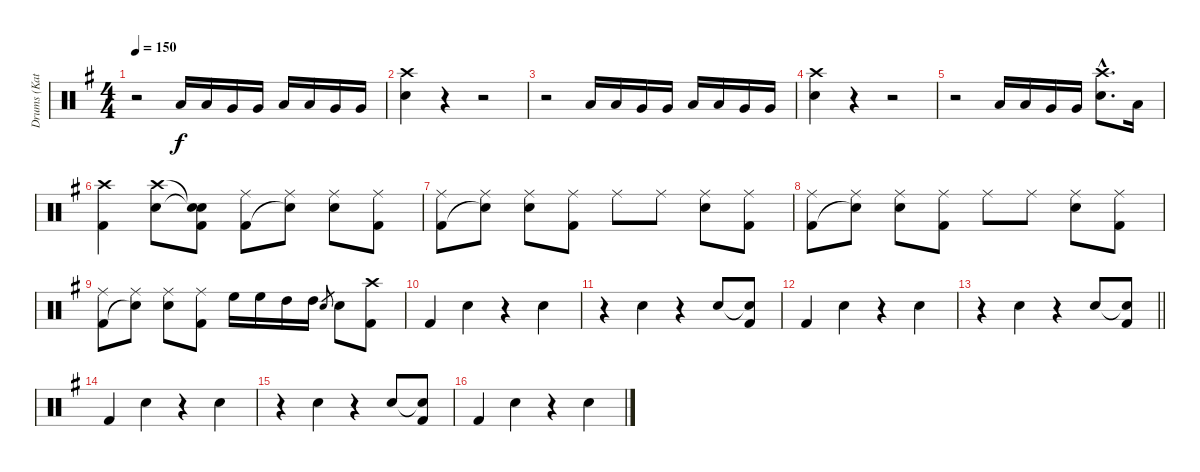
\track ("Drums (Katsuji)" "Drums (Kat") {instrument percussion}
\staff {score}
\articulation defaults
\ts (4 4)
\tempo 150
\clef neutral
\ks g
r.2{dy f} "Low Tom (hit)".16 "Low Tom (hit)".16 "Very Low Tom (hit)".16 "Very Low Tom (hit)".16 "Low Tom (hit)".16 "Low Tom (hit)".16 "Very Low Tom (hit)".16 "Very Low Tom (hit)".16 |
("Crash high (hit)" "Snare (hit) 2").4 r.4 r.2 |
r.2 "Low Tom (hit)".16 "Low Tom (hit)".16 "Very Low Tom (hit)".16 "Very Low Tom (hit)".16 "Low Tom (hit)".16 "Low Tom (hit)".16 "Very Low Tom (hit)".16 "Very Low Tom (hit)".16 |
("Crash high (hit)" "Snare (hit) 2").4 r.4 r.2 |
r.2 "Low Tom (hit)".16 "Low Tom (hit)".16 "Very Low Tom (hit)".16 "Very Low Tom (hit)".16 ("Crash high (hit)"{hac} "Snare (hit) 2"{hac}).8{d} "Low Tom (hit)".16 |
("Crash high (hit)" "Kick (hit) 2").4 ("Crash high (hit)" "Snare (hit) 2").8 ("Snare (hit)"{t} "Snare (hit)"{t} "Kick (hit) 2").8 ("Ride (middle)" "Kick (hit) 2").8 ("Ride (middle)" "Snare (hit)"{t}).8 ("Ride (middle)" "Snare (hit) 2").8 ("Ride (middle)" "Kick (hit) 2").8 |
("Ride (middle)" "Kick (hit) 2").8 ("Ride (middle)" "Snare (hit)"{t}).8 ("Ride (middle)" "Snare (hit) 2").8 ("Ride (middle)" "Kick (hit) 2").8 "Ride (middle)".8 "Ride (middle)".8 ("Ride (middle)" "Snare (hit) 2").8 ("Ride (middle)" "Kick (hit) 2").8 |
("Ride (middle)" "Kick (hit) 2").8 ("Ride (middle)" "Snare (hit)"{t}).8 ("Ride (middle)" "Snare (hit) 2").8 ("Ride (middle)" "Kick (hit) 2").8 "Ride (middle)".8 "Ride (middle)".8 ("Ride (middle)" "Snare (hit) 2").8 ("Ride (middle)" "Kick (hit) 2").8 |
("Ride (middle)" "Kick (hit) 2").8 ("Ride (middle)" "Snare (hit)"{t}).8 ("Ride (middle)" "Snare (hit) 2").8 ("Ride (middle)" "Kick (hit) 2").8 "High Floor Tom (hit)".16 "High Floor Tom (hit)".16 "High Tom (hit)".16 "High Tom (hit)".16 "Snare (hit) 2".8{gr} "Snare (hit) 2".8 ("Crash high (hit)" "Kick (hit) 2").8 |
"Kick (hit) 2".4 "Snare (hit) 2".4 r.4 "Snare (hit) 2".4 |
r.4 "Snare (hit) 2".4 r.4 "Snare (hit) 2".8 ("Snare (hit)"{t} "Kick (hit) 2").8 |
"Kick (hit) 2".4 "Snare (hit) 2".4 r.4 "Snare (hit) 2".4 |
\barLineRight lightlight
r.4 "Snare (hit) 2".4 r.4 "Snare (hit) 2".8 ("Snare (hit)"{t} "Kick (hit) 2").8 |
"Kick (hit) 2".4 "Snare (hit) 2".4 r.4 "Snare (hit) 2".4 |
r.4 "Snare (hit) 2".4 r.4 "Snare (hit) 2".8 ("Snare (hit)"{t} "Kick (hit) 2").8 |
"Kick (hit) 2".4 "Snare (hit) 2".4 r.4 "Snare (hit) 2".4
